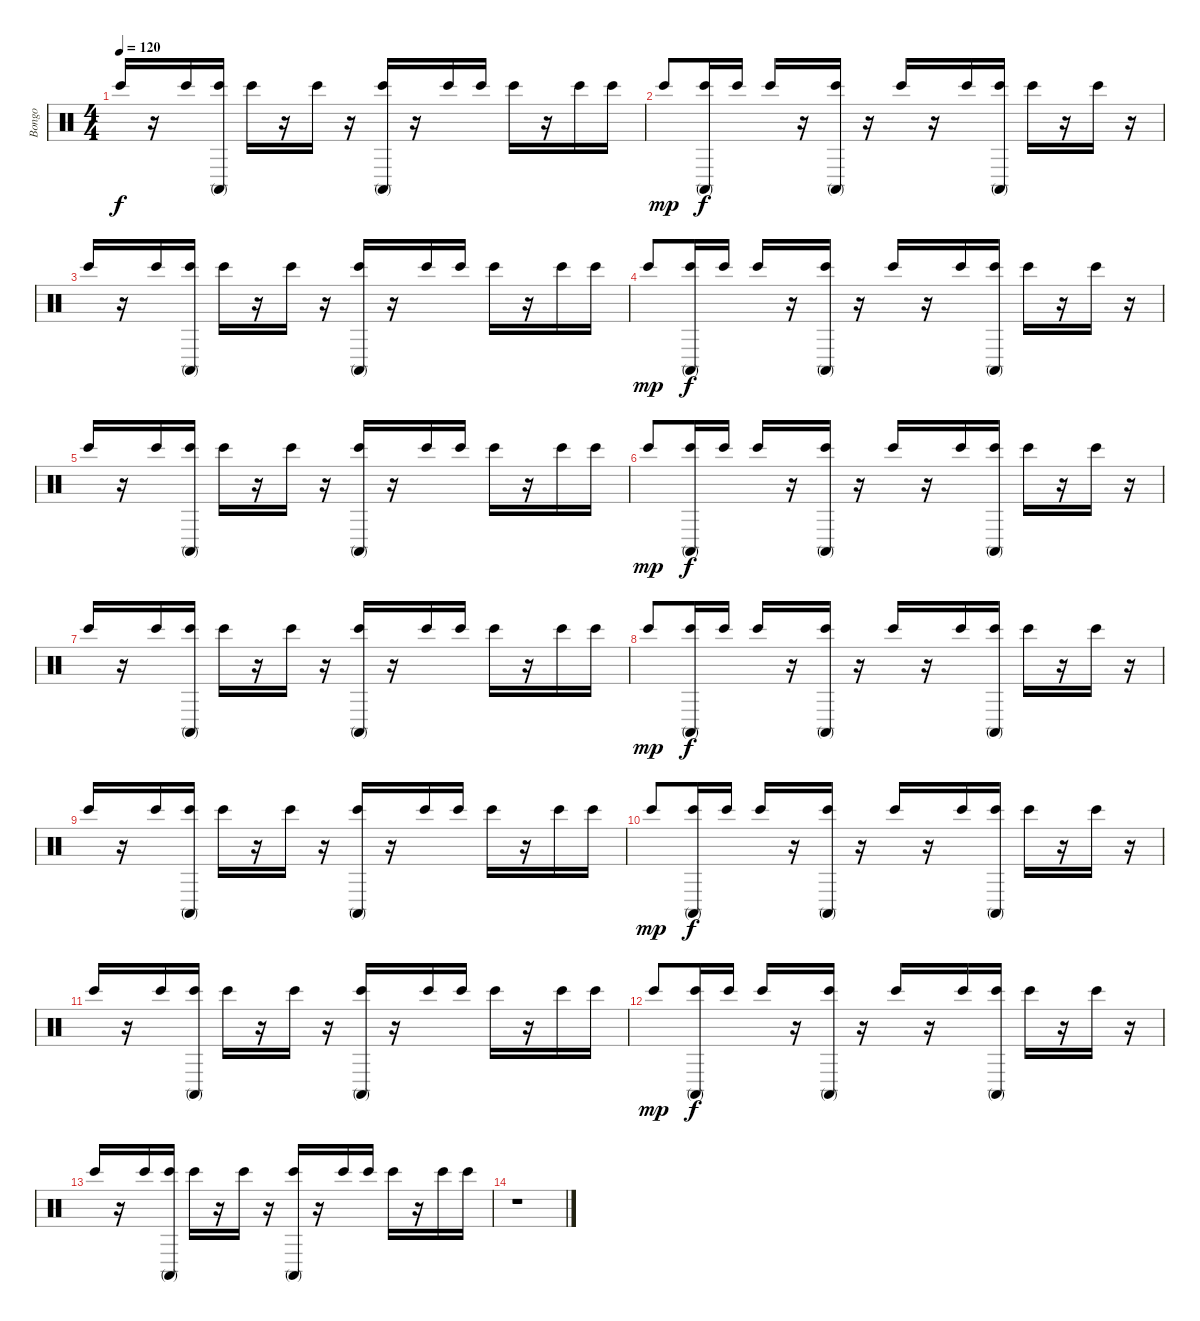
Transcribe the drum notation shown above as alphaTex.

\track ("Bongo" "Bongo") {instrument percussion}
\staff {score}
\articulation defaults
\ts (4 4)
\tempo 120
\clef neutral
\ks c "Bongo High (hit)".16{dy f}
r.16 "Bongo High (hit)".16 ("Conga high (mute)" "Bongo High (hit)").16 "Bongo High (hit)".16 r.16 "Bongo High (hit)".16 r.16 ("Conga high (mute)" "Bongo High (hit)").16 r.16 "Bongo High (hit)".16 "Bongo High (hit)".16 "Bongo High (hit)".16 r.16 "Bongo High (hit)".16 "Bongo High (hit)".16 |
"Bongo High (hit)".8{dy mp} ("Conga high (mute)" "Bongo High (hit)").16{dy f} "Bongo High (hit)".16 "Bongo High (hit)".16 r.16 ("Conga high (mute)" "Bongo High (hit)").16 r.16 "Bongo High (hit)".16 r.16 "Bongo High (hit)".16 ("Conga high (mute)" "Bongo High (hit)").16 "Bongo High (hit)".16 r.16 "Bongo High (hit)".16 r.16 |
"Bongo High (hit)".16 r.16 "Bongo High (hit)".16 ("Conga high (mute)" "Bongo High (hit)").16 "Bongo High (hit)".16 r.16 "Bongo High (hit)".16 r.16 ("Conga high (mute)" "Bongo High (hit)").16 r.16 "Bongo High (hit)".16 "Bongo High (hit)".16 "Bongo High (hit)".16 r.16 "Bongo High (hit)".16 "Bongo High (hit)".16 |
"Bongo High (hit)".8{dy mp} ("Conga high (mute)" "Bongo High (hit)").16{dy f} "Bongo High (hit)".16 "Bongo High (hit)".16 r.16 ("Conga high (mute)" "Bongo High (hit)").16 r.16 "Bongo High (hit)".16 r.16 "Bongo High (hit)".16 ("Conga high (mute)" "Bongo High (hit)").16 "Bongo High (hit)".16 r.16 "Bongo High (hit)".16 r.16 |
"Bongo High (hit)".16 r.16 "Bongo High (hit)".16 ("Conga high (mute)" "Bongo High (hit)").16 "Bongo High (hit)".16 r.16 "Bongo High (hit)".16 r.16 ("Conga high (mute)" "Bongo High (hit)").16 r.16 "Bongo High (hit)".16 "Bongo High (hit)".16 "Bongo High (hit)".16 r.16 "Bongo High (hit)".16 "Bongo High (hit)".16 |
"Bongo High (hit)".8{dy mp} ("Conga high (mute)" "Bongo High (hit)").16{dy f} "Bongo High (hit)".16 "Bongo High (hit)".16 r.16 ("Conga high (mute)" "Bongo High (hit)").16 r.16 "Bongo High (hit)".16 r.16 "Bongo High (hit)".16 ("Conga high (mute)" "Bongo High (hit)").16 "Bongo High (hit)".16 r.16 "Bongo High (hit)".16 r.16 |
"Bongo High (hit)".16 r.16 "Bongo High (hit)".16 ("Conga high (mute)" "Bongo High (hit)").16 "Bongo High (hit)".16 r.16 "Bongo High (hit)".16 r.16 ("Conga high (mute)" "Bongo High (hit)").16 r.16 "Bongo High (hit)".16 "Bongo High (hit)".16 "Bongo High (hit)".16 r.16 "Bongo High (hit)".16 "Bongo High (hit)".16 |
"Bongo High (hit)".8{dy mp} ("Conga high (mute)" "Bongo High (hit)").16{dy f} "Bongo High (hit)".16 "Bongo High (hit)".16 r.16 ("Conga high (mute)" "Bongo High (hit)").16 r.16 "Bongo High (hit)".16 r.16 "Bongo High (hit)".16 ("Conga high (mute)" "Bongo High (hit)").16 "Bongo High (hit)".16 r.16 "Bongo High (hit)".16 r.16 |
"Bongo High (hit)".16 r.16 "Bongo High (hit)".16 ("Conga high (mute)" "Bongo High (hit)").16 "Bongo High (hit)".16 r.16 "Bongo High (hit)".16 r.16 ("Conga high (mute)" "Bongo High (hit)").16 r.16 "Bongo High (hit)".16 "Bongo High (hit)".16 "Bongo High (hit)".16 r.16 "Bongo High (hit)".16 "Bongo High (hit)".16 |
"Bongo High (hit)".8{dy mp} ("Conga high (mute)" "Bongo High (hit)").16{dy f} "Bongo High (hit)".16 "Bongo High (hit)".16 r.16 ("Conga high (mute)" "Bongo High (hit)").16 r.16 "Bongo High (hit)".16 r.16 "Bongo High (hit)".16 ("Conga high (mute)" "Bongo High (hit)").16 "Bongo High (hit)".16 r.16 "Bongo High (hit)".16 r.16 |
"Bongo High (hit)".16 r.16 "Bongo High (hit)".16 ("Conga high (mute)" "Bongo High (hit)").16 "Bongo High (hit)".16 r.16 "Bongo High (hit)".16 r.16 ("Conga high (mute)" "Bongo High (hit)").16 r.16 "Bongo High (hit)".16 "Bongo High (hit)".16 "Bongo High (hit)".16 r.16 "Bongo High (hit)".16 "Bongo High (hit)".16 |
"Bongo High (hit)".8{dy mp} ("Conga high (mute)" "Bongo High (hit)").16{dy f} "Bongo High (hit)".16 "Bongo High (hit)".16 r.16 ("Conga high (mute)" "Bongo High (hit)").16 r.16 "Bongo High (hit)".16 r.16 "Bongo High (hit)".16 ("Conga high (mute)" "Bongo High (hit)").16 "Bongo High (hit)".16 r.16 "Bongo High (hit)".16 r.16 |
"Bongo High (hit)".16 r.16 "Bongo High (hit)".16 ("Conga high (mute)" "Bongo High (hit)").16 "Bongo High (hit)".16 r.16 "Bongo High (hit)".16 r.16 ("Conga high (mute)" "Bongo High (hit)").16 r.16 "Bongo High (hit)".16 "Bongo High (hit)".16 "Bongo High (hit)".16 r.16 "Bongo High (hit)".16 "Bongo High (hit)".16 |
r.1
